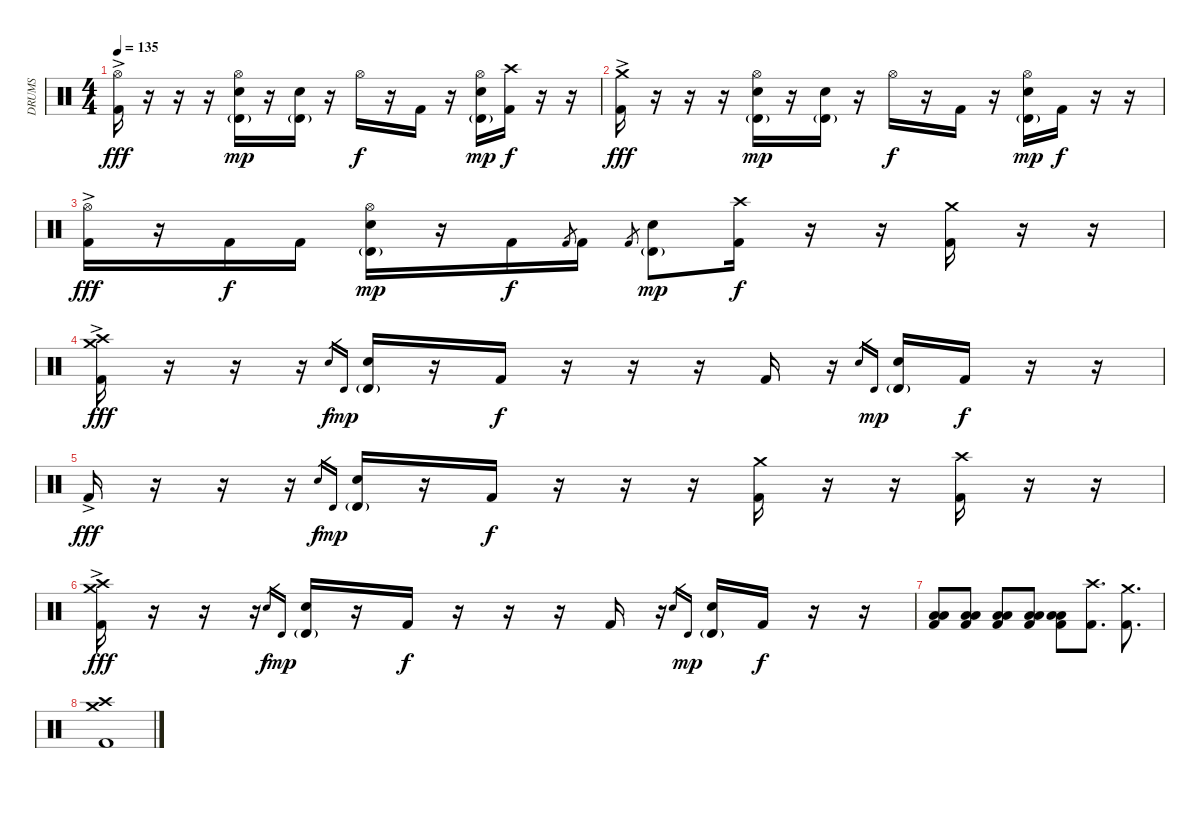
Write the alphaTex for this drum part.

\track ("DRUMS" "DRUMS") {instrument percussion}
\staff {score}
\articulation defaults
\ts (4 4)
\tempo 135
\clef neutral
\ks c
("Hi-Hat (open)" "Kick (hit) 2"{ac}).16{dy fff} r.16 r.16 r.16 ("Hi-Hat (open)" "Electric Snare (hit)" "Timbale high (hit)"{g}).16{dy mp} r.16 ("Electric Snare (hit)" "Timbale high (hit)"{g}).16 r.16 "Hi-Hat (open)".16{dy f} r.16 "Kick (hit) 2".16 r.16 ("Hi-Hat (open)" "Electric Snare (hit)" "Timbale high (hit)"{g}).16{dy mp} ("Crash high (hit)" "Kick (hit) 2").16{dy f} r.16 r.16 |
("Crash medium (hit)" "Kick (hit) 2"{ac}).16{dy fff} r.16 r.16 r.16 ("Hi-Hat (open)" "Electric Snare (hit)" "Timbale high (hit)"{g}).16{dy mp} r.16 ("Electric Snare (hit)" "Timbale high (hit)"{g}).16 r.16 "Hi-Hat (open)".16{dy f} r.16 "Kick (hit) 2".16 r.16 ("Hi-Hat (open)" "Electric Snare (hit)" "Timbale high (hit)"{g}).16{dy mp} "Kick (hit) 2".16{dy f} r.16 r.16 |
("Hi-Hat (open)" "Kick (hit) 2"{ac}).16{dy fff} r.16 "Kick (hit) 2".16{dy f} "Kick (hit) 2".16 ("Hi-Hat (open)" "Electric Snare (hit)" "Timbale high (hit)"{g}).16{dy mp} r.16 "Kick (hit) 2".16{dy f} "Kick (hit) 2".8{gr} "Kick (hit) 2".16 "Kick (hit) 2".8{gr} ("Electric Snare (hit)" "Timbale high (hit)"{g}).8{dy mp} ("Kick (hit) 2" "Crash high (hit)").16{dy f} r.16 r.16 ("Kick (hit) 2" "Crash medium (hit)").16 r.16 r.16 |
("Crash high (hit)" "Crash medium (hit)" "Kick (hit) 2"{ac}).16{dy fff} r.16 r.16 r.16 "Electric Snare (hit)".16{gr dy f} "Timbale high (hit)".16{gr dy mp} ("Electric Snare (hit)" "Timbale high (hit)"{g}).16 r.16 "Kick (hit) 2".16{dy f} r.16 r.16 r.16 "Kick (hit) 2".16 r.16 "Electric Snare (hit)".16{gr} "Timbale high (hit)".16{gr dy mp} ("Electric Snare (hit)" "Timbale high (hit)"{g}).16 "Kick (hit) 2".16{dy f} r.16 r.16 |
"Kick (hit) 2"{ac}.16{dy fff} r.16 r.16 r.16 "Electric Snare (hit)".16{gr dy f} "Timbale high (hit)".16{gr dy mp} ("Electric Snare (hit)" "Timbale high (hit)"{g}).16 r.16 "Kick (hit) 2".16{dy f} r.16 r.16 r.16 ("Crash medium (hit)" "Kick (hit) 2").16 r.16 r.16 ("Crash high (hit)" "Kick (hit) 2").16 r.16 r.16 |
("Crash high (hit)" "Crash medium (hit)" "Kick (hit) 2"{ac}).16{dy fff} r.16 r.16 r.16 "Electric Snare (hit)".16{gr dy f} "Timbale high (hit)".16{gr dy mp} ("Electric Snare (hit)" "Timbale high (hit)"{g}).16 r.16 "Kick (hit) 2".16{dy f} r.16 r.16 r.16 "Kick (hit) 2".16 r.16 "Electric Snare (hit)".16{gr} "Timbale high (hit)".16{gr dy mp} ("Electric Snare (hit)" "Timbale high (hit)"{g}).16 "Kick (hit) 2".16{dy f} r.16 r.16 |
("Kick (hit) 2" "Low Tom (hit)" "Low Floor Tom (hit)").8 ("Kick (hit) 2" "Low Tom (hit)" "Low Floor Tom (hit)").8 ("Kick (hit) 2" "Low Tom (hit)" "Low Floor Tom (hit)").8 ("Kick (hit) 2" "Low Tom (hit)" "Low Floor Tom (hit)").8 ("Kick (hit) 2" "Low Tom (hit)" "Low Floor Tom (hit)").8 ("Kick (hit) 2" "Crash high (hit)").8{d} ("Kick (hit) 2" "Crash medium (hit)").8{d} |
("Kick (hit) 2" "Crash high (hit)" "Crash medium (hit)").1
